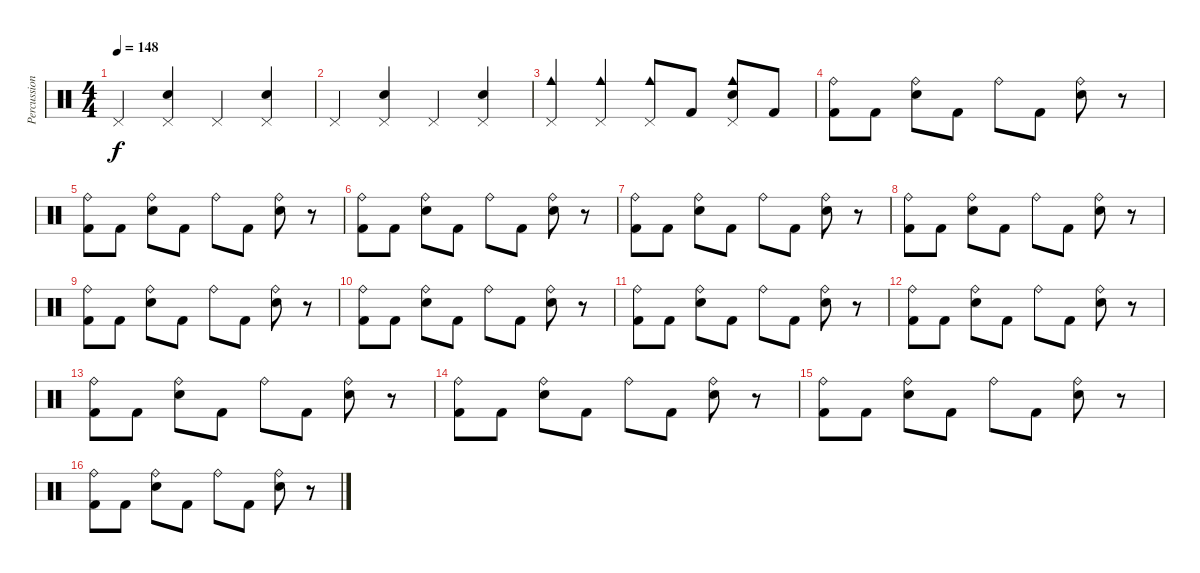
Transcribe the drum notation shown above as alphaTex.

\track ("Percussions" "Percussion") {instrument percussion}
\staff {score}
\articulation defaults
\ts (4 4)
\tempo 148
\clef neutral
\ks c "Pedal Hi-Hat (hit)".4{dy f}
("Electric Snare (hit)" "Pedal Hi-Hat (hit)").4 "Pedal Hi-Hat (hit)".4 ("Electric Snare (hit)" "Pedal Hi-Hat (hit)").4 |
"Pedal Hi-Hat (hit)".4 ("Electric Snare (hit)" "Pedal Hi-Hat (hit)").4 "Pedal Hi-Hat (hit)".4 ("Electric Snare (hit)" "Pedal Hi-Hat (hit)").4 |
("Cowbell medium (hit)" "Pedal Hi-Hat (hit)").4 ("Cowbell medium (hit)" "Pedal Hi-Hat (hit)").4 ("Cowbell medium (hit)" "Pedal Hi-Hat (hit)").8 "Kick (hit) 2".8 ("Cowbell medium (hit)" "Electric Snare (hit)" "Pedal Hi-Hat (hit)").8 "Kick (hit) 2".8 |
("Kick (hit) 2" "Ride (bell)").8 "Kick (hit) 2".8 ("Electric Snare (hit)" "Ride (bell)").8 "Kick (hit) 2".8 "Ride (bell)".8 "Kick (hit) 2".8 ("Electric Snare (hit)" "Ride (bell)").8 r.8 |
("Kick (hit) 2" "Ride (bell)").8 "Kick (hit) 2".8 ("Electric Snare (hit)" "Ride (bell)").8 "Kick (hit) 2".8 "Ride (bell)".8 "Kick (hit) 2".8 ("Electric Snare (hit)" "Ride (bell)").8 r.8 |
("Kick (hit) 2" "Ride (bell)").8 "Kick (hit) 2".8 ("Electric Snare (hit)" "Ride (bell)").8 "Kick (hit) 2".8 "Ride (bell)".8 "Kick (hit) 2".8 ("Electric Snare (hit)" "Ride (bell)").8 r.8 |
("Kick (hit) 2" "Ride (bell)").8 "Kick (hit) 2".8 ("Electric Snare (hit)" "Ride (bell)").8 "Kick (hit) 2".8 "Ride (bell)".8 "Kick (hit) 2".8 ("Electric Snare (hit)" "Ride (bell)").8 r.8 |
("Kick (hit) 2" "Ride (bell)").8 "Kick (hit) 2".8 ("Electric Snare (hit)" "Ride (bell)").8 "Kick (hit) 2".8 "Ride (bell)".8 "Kick (hit) 2".8 ("Electric Snare (hit)" "Ride (bell)").8 r.8 |
("Kick (hit) 2" "Ride (bell)").8 "Kick (hit) 2".8 ("Electric Snare (hit)" "Ride (bell)").8 "Kick (hit) 2".8 "Ride (bell)".8 "Kick (hit) 2".8 ("Electric Snare (hit)" "Ride (bell)").8 r.8 |
("Kick (hit) 2" "Ride (bell)").8 "Kick (hit) 2".8 ("Electric Snare (hit)" "Ride (bell)").8 "Kick (hit) 2".8 "Ride (bell)".8 "Kick (hit) 2".8 ("Electric Snare (hit)" "Ride (bell)").8 r.8 |
("Kick (hit) 2" "Ride (bell)").8 "Kick (hit) 2".8 ("Electric Snare (hit)" "Ride (bell)").8 "Kick (hit) 2".8 "Ride (bell)".8 "Kick (hit) 2".8 ("Electric Snare (hit)" "Ride (bell)").8 r.8 |
("Kick (hit) 2" "Ride (bell)").8 "Kick (hit) 2".8 ("Electric Snare (hit)" "Ride (bell)").8 "Kick (hit) 2".8 "Ride (bell)".8 "Kick (hit) 2".8 ("Electric Snare (hit)" "Ride (bell)").8 r.8 |
("Kick (hit) 2" "Ride (bell)").8 "Kick (hit) 2".8 ("Electric Snare (hit)" "Ride (bell)").8 "Kick (hit) 2".8 "Ride (bell)".8 "Kick (hit) 2".8 ("Electric Snare (hit)" "Ride (bell)").8 r.8 |
("Kick (hit) 2" "Ride (bell)").8 "Kick (hit) 2".8 ("Electric Snare (hit)" "Ride (bell)").8 "Kick (hit) 2".8 "Ride (bell)".8 "Kick (hit) 2".8 ("Electric Snare (hit)" "Ride (bell)").8 r.8 |
("Kick (hit) 2" "Ride (bell)").8 "Kick (hit) 2".8 ("Electric Snare (hit)" "Ride (bell)").8 "Kick (hit) 2".8 "Ride (bell)".8 "Kick (hit) 2".8 ("Electric Snare (hit)" "Ride (bell)").8 r.8 |
("Kick (hit) 2" "Ride (bell)").8 "Kick (hit) 2".8 ("Electric Snare (hit)" "Ride (bell)").8 "Kick (hit) 2".8 "Ride (bell)".8 "Kick (hit) 2".8 ("Electric Snare (hit)" "Ride (bell)").8 r.8
